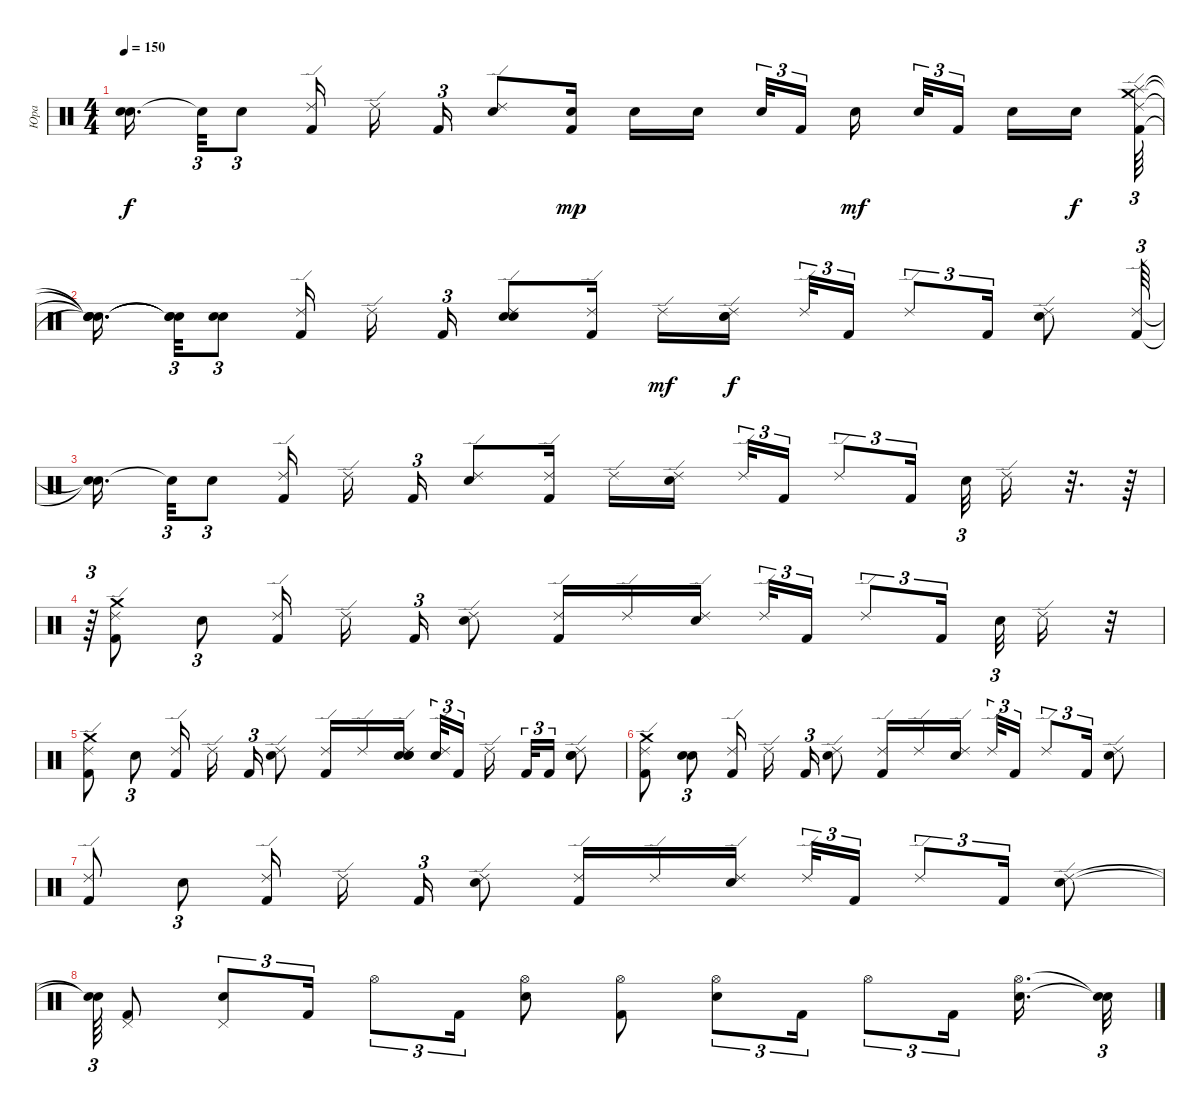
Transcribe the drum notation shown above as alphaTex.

\track ("Юра" "Юра") {instrument percussion}
\staff {score}
\articulation defaults
\ts (4 4)
\tempo 150
\clef neutral
\ks c
("Snare (hit)"{t} "Snare (hit)"{t}).16{d dy f beam splitsecondary} "Snare (hit)"{t}.32{tu (3 2)} "Electric Snare (hit)".8{tu (3 2)} ("Kick (hit) 2" "Ride (edge) 2").16 "Ride (edge) 2".16{beam splitsecondary} "Kick (hit) 2".16{tu (3 2)} ("Electric Snare (hit)" "Ride (edge) 2").8 ("Electric Snare (hit)" "Kick (hit) 2").16{dy mp} "Electric Snare (hit)".16 "Electric Snare (hit)".16{beam splitsecondary} "Electric Snare (hit)".32{tu (3 2)} "Kick (hit) 2".16{tu (3 2) beam splitsecondary} "Electric Snare (hit)".16{dy mf} "Electric Snare (hit)".32{tu (3 2)} "Kick (hit) 2".16{tu (3 2) beam splitsecondary} "Electric Snare (hit)".16 "Electric Snare (hit)".16{dy f beam splitsecondary} ("Kick (hit) 2" "Splash (hit)" "Ride (edge) 2" "Crash medium (hit)").64{tu (3 2)} |
("Snare (hit)"{t} "Snare (hit)"{t} "Snare (hit)"{t} "Snare (hit)"{t}).16{d beam splitsecondary} ("Snare (hit)"{t} "Snare (hit)"{t} "Snare (hit)"{t}).32{tu (3 2)} ("Electric Snare (hit)" "Electric Snare (hit)").8{tu (3 2)} ("Kick (hit) 2" "Ride (edge) 2").16 "Ride (edge) 2".16{beam splitsecondary} "Kick (hit) 2".16{tu (3 2)} ("Electric Snare (hit)" "Electric Snare (hit)" "Ride (edge) 2").8 ("Kick (hit) 2" "Ride (edge) 2").16 "Ride (edge) 2".16{dy mf} ("Electric Snare (hit)" "Electric Snare (hit)" "Ride (edge) 2").16{dy f beam splitsecondary} "Ride (edge) 2".32{tu (3 2)} "Kick (hit) 2".16{tu (3 2)} "Ride (edge) 2".8{tu (3 2)} "Kick (hit) 2".16{tu (3 2)} ("Electric Snare (hit)" "Ride (edge) 2").8 ("Ride (edge) 2" "Kick (hit) 2").64{tu (3 2)} |
("Snare (hit)"{t} "Snare (hit)"{t}).16{d beam splitsecondary} "Snare (hit)"{t}.32{tu (3 2)} "Electric Snare (hit)".8{tu (3 2)} ("Ride (edge) 2" "Kick (hit) 2").16 "Ride (edge) 2".16{beam splitsecondary} "Kick (hit) 2".16{tu (3 2)} ("Ride (edge) 2" "Electric Snare (hit)").8 ("Ride (edge) 2" "Kick (hit) 2").16 "Ride (edge) 2".16 ("Ride (edge) 2" "Electric Snare (hit)").16{beam splitsecondary} "Ride (edge) 2".32{tu (3 2)} "Kick (hit) 2".16{tu (3 2)} "Ride (edge) 2".8{tu (3 2)} "Kick (hit) 2".16{tu (3 2) beam splitsecondary} "Electric Snare (hit)".32{tu (3 2)} "Ride (edge) 2".16 r.32{d} r.64 |
r.64{tu (3 2)} ("Ride (edge) 2" "Crash medium (hit)" "Kick (hit) 2").8 "Electric Snare (hit)".8{tu (3 2)} ("Kick (hit) 2" "Ride (edge) 2").16 "Ride (edge) 2".16{beam splitsecondary} "Kick (hit) 2".16{tu (3 2)} ("Ride (edge) 2" "Electric Snare (hit)").8 ("Ride (edge) 2" "Kick (hit) 2").16 "Ride (edge) 2".16 ("Ride (edge) 2" "Electric Snare (hit)").16{beam splitsecondary} "Ride (edge) 2".32{tu (3 2)} "Kick (hit) 2".16{tu (3 2)} "Ride (edge) 2".8{tu (3 2)} "Kick (hit) 2".16{tu (3 2) beam splitsecondary} "Electric Snare (hit)".32{tu (3 2)} "Ride (edge) 2".16 r.32 |
("Ride (edge) 2" "Crash medium (hit)" "Kick (hit) 2").8 "Electric Snare (hit)".8{tu (3 2)} ("Kick (hit) 2" "Ride (edge) 2").16 "Ride (edge) 2".16{beam splitsecondary} "Kick (hit) 2".16{tu (3 2)} ("Ride (edge) 2" "Electric Snare (hit)").8 ("Ride (edge) 2" "Kick (hit) 2").16 "Ride (edge) 2".16 ("Ride (edge) 2" "Electric Snare (hit)" "Electric Snare (hit)" "Electric Snare (hit)").16{beam splitsecondary} ("Ride (edge) 2" "Electric Snare (hit)").32{tu (3 2)} "Kick (hit) 2".16{tu (3 2)} "Ride (edge) 2".16{beam splitsecondary} "Kick (hit) 2".32{tu (3 2)} "Kick (hit) 2".16{tu (3 2)} ("Electric Snare (hit)" "Electric Snare (hit)" "Ride (edge) 2").8 |
("Ride (edge) 2" "Kick (hit) 2" "Crash medium (hit)").8 ("Electric Snare (hit)" "Electric Snare (hit)").8{tu (3 2)} ("Ride (edge) 2" "Kick (hit) 2").16 "Ride (edge) 2".16{beam splitsecondary} "Kick (hit) 2".16{tu (3 2)} ("Ride (edge) 2" "Electric Snare (hit)").8 ("Ride (edge) 2" "Kick (hit) 2").16 "Ride (edge) 2".16 ("Ride (edge) 2" "Electric Snare (hit)").16{beam splitsecondary} "Ride (edge) 2".32{tu (3 2)} "Kick (hit) 2".16{tu (3 2)} "Ride (edge) 2".8{tu (3 2)} "Kick (hit) 2".16{tu (3 2)} ("Ride (edge) 2" "Electric Snare (hit)").8 |
("Ride (edge) 2" "Kick (hit) 2").8 "Electric Snare (hit)".8{tu (3 2)} ("Ride (edge) 2" "Kick (hit) 2").16 "Ride (edge) 2".16{beam splitsecondary} "Kick (hit) 2".16{tu (3 2)} ("Electric Snare (hit)" "Ride (edge) 2").8 ("Ride (edge) 2" "Kick (hit) 2").16 "Ride (edge) 2".16 ("Ride (edge) 2" "Electric Snare (hit)").16{beam splitsecondary} "Ride (edge) 2".32{tu (3 2)} "Kick (hit) 2".16{tu (3 2)} "Ride (edge) 2".8{tu (3 2)} "Kick (hit) 2".16{tu (3 2)} ("Ride (edge) 2" "Electric Snare (hit)").8 |
("Snare (hit)"{t} "Snare (hit)"{t}).64{tu (3 2)} ("Pedal Hi-Hat (hit)" "Kick (hit) 2").8 ("Pedal Hi-Hat (hit)" "Electric Snare (hit)").8{tu (3 2)} "Kick (hit) 2".16{tu (3 2)} "Hi-Hat (open)".8{tu (3 2)} "Kick (hit) 2".16{tu (3 2)} ("Hi-Hat (open)" "Electric Snare (hit)").8 ("Hi-Hat (open)" "Kick (hit) 2").8 ("Hi-Hat (open)" "Electric Snare (hit)").8{tu (3 2)} "Kick (hit) 2".16{tu (3 2)} "Hi-Hat (open)".8{tu (3 2)} "Kick (hit) 2".16{tu (3 2) beam splitsecondary} ("Hi-Hat (open)" "Electric Snare (hit)").16{d} ("Snare (hit)"{t} "Snare (hit)"{t}).32{tu (3 2)}
